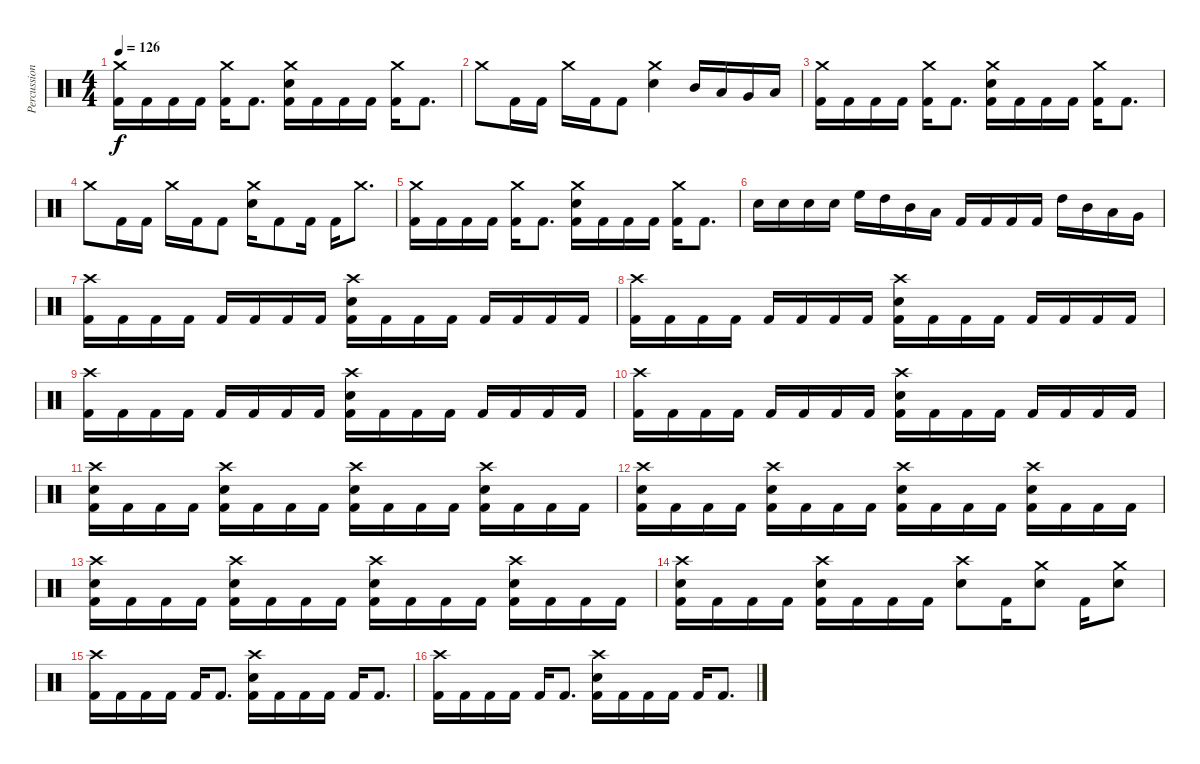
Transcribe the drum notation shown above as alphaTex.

\track ("Percussion" "Percussion") {instrument percussion}
\staff {score}
\articulation defaults
\ts (4 4)
\tempo 126
\clef neutral
\ks c
("Crash medium (hit)" "Kick (hit) 2").16{dy f} "Kick (hit) 2".16 "Kick (hit) 2".16 "Kick (hit) 2".16 ("Crash medium (hit)" "Kick (hit) 2").16 "Kick (hit) 2".8{d} ("Crash medium (hit)" "Electric Snare (hit)" "Kick (hit) 2").16 "Kick (hit) 2".16 "Kick (hit) 2".16 "Kick (hit) 2".16 ("Crash medium (hit)" "Kick (hit) 2").16 "Kick (hit) 2".8{d} |
"Crash medium (hit)".8 "Kick (hit) 2".16 "Kick (hit) 2".16 "Crash medium (hit)".16 "Kick (hit) 2".16 "Kick (hit) 2".8 ("Crash medium (hit)" "Electric Snare (hit)").4 "Mid Tom (hit)".16 "Low Tom (hit)".16 "Very Low Tom (hit)".16 "Low Floor Tom (hit)".16 |
("Crash medium (hit)" "Kick (hit) 2").16 "Kick (hit) 2".16 "Kick (hit) 2".16 "Kick (hit) 2".16 ("Crash medium (hit)" "Kick (hit) 2").16 "Kick (hit) 2".8{d} ("Crash medium (hit)" "Electric Snare (hit)" "Kick (hit) 2").16 "Kick (hit) 2".16 "Kick (hit) 2".16 "Kick (hit) 2".16 ("Crash medium (hit)" "Kick (hit) 2").16 "Kick (hit) 2".8{d} |
"Crash medium (hit)".8 "Kick (hit) 2".16 "Kick (hit) 2".16 "Crash medium (hit)".16 "Kick (hit) 2".16 "Kick (hit) 2".8 ("Crash medium (hit)" "Electric Snare (hit)").16 "Kick (hit) 2".8 "Kick (hit) 2".16 "Kick (hit) 2".16 "Crash medium (hit)".8{d} |
("Crash medium (hit)" "Kick (hit) 2").16 "Kick (hit) 2".16 "Kick (hit) 2".16 "Kick (hit) 2".16 ("Crash medium (hit)" "Kick (hit) 2").16 "Kick (hit) 2".8{d} ("Crash medium (hit)" "Electric Snare (hit)" "Kick (hit) 2").16 "Kick (hit) 2".16 "Kick (hit) 2".16 "Kick (hit) 2".16 ("Crash medium (hit)" "Kick (hit) 2").16 "Kick (hit) 2".8{d} |
"Electric Snare (hit)".16 "Electric Snare (hit)".16 "Electric Snare (hit)".16 "Electric Snare (hit)".16 "High Floor Tom (hit)".16 "High Tom (hit)".16 "Mid Tom (hit)".16 "Low Tom (hit)".16 "Kick (hit) 2".16 "Kick (hit) 2".16 "Kick (hit) 2".16 "Kick (hit) 2".16 "High Tom (hit)".16 "Mid Tom (hit)".16 "Low Tom (hit)".16 "Very Low Tom (hit)".16 |
("Crash high (hit)" "Kick (hit) 2").16 "Kick (hit) 2".16 "Kick (hit) 2".16 "Kick (hit) 2".16 "Kick (hit) 2".16 "Kick (hit) 2".16 "Kick (hit) 2".16 "Kick (hit) 2".16 ("Crash high (hit)" "Electric Snare (hit)" "Kick (hit) 2").16 "Kick (hit) 2".16 "Kick (hit) 2".16 "Kick (hit) 2".16 "Kick (hit) 2".16 "Kick (hit) 2".16 "Kick (hit) 2".16 "Kick (hit) 2".16 |
("Crash high (hit)" "Kick (hit) 2").16 "Kick (hit) 2".16 "Kick (hit) 2".16 "Kick (hit) 2".16 "Kick (hit) 2".16 "Kick (hit) 2".16 "Kick (hit) 2".16 "Kick (hit) 2".16 ("Crash high (hit)" "Electric Snare (hit)" "Kick (hit) 2").16 "Kick (hit) 2".16 "Kick (hit) 2".16 "Kick (hit) 2".16 "Kick (hit) 2".16 "Kick (hit) 2".16 "Kick (hit) 2".16 "Kick (hit) 2".16 |
("Crash high (hit)" "Kick (hit) 2").16 "Kick (hit) 2".16 "Kick (hit) 2".16 "Kick (hit) 2".16 "Kick (hit) 2".16 "Kick (hit) 2".16 "Kick (hit) 2".16 "Kick (hit) 2".16 ("Crash high (hit)" "Electric Snare (hit)" "Kick (hit) 2").16 "Kick (hit) 2".16 "Kick (hit) 2".16 "Kick (hit) 2".16 "Kick (hit) 2".16 "Kick (hit) 2".16 "Kick (hit) 2".16 "Kick (hit) 2".16 |
("Crash high (hit)" "Kick (hit) 2").16 "Kick (hit) 2".16 "Kick (hit) 2".16 "Kick (hit) 2".16 "Kick (hit) 2".16 "Kick (hit) 2".16 "Kick (hit) 2".16 "Kick (hit) 2".16 ("Crash high (hit)" "Electric Snare (hit)" "Kick (hit) 2").16 "Kick (hit) 2".16 "Kick (hit) 2".16 "Kick (hit) 2".16 "Kick (hit) 2".16 "Kick (hit) 2".16 "Kick (hit) 2".16 "Kick (hit) 2".16 |
("Crash high (hit)" "Electric Snare (hit)" "Kick (hit) 2").16 "Kick (hit) 2".16 "Kick (hit) 2".16 "Kick (hit) 2".16 ("Crash high (hit)" "Electric Snare (hit)" "Kick (hit) 2").16 "Kick (hit) 2".16 "Kick (hit) 2".16 "Kick (hit) 2".16 ("Crash high (hit)" "Electric Snare (hit)" "Kick (hit) 2").16 "Kick (hit) 2".16 "Kick (hit) 2".16 "Kick (hit) 2".16 ("Crash high (hit)" "Electric Snare (hit)" "Kick (hit) 2").16 "Kick (hit) 2".16 "Kick (hit) 2".16 "Kick (hit) 2".16 |
("Crash high (hit)" "Electric Snare (hit)" "Kick (hit) 2").16 "Kick (hit) 2".16 "Kick (hit) 2".16 "Kick (hit) 2".16 ("Crash high (hit)" "Electric Snare (hit)" "Kick (hit) 2").16 "Kick (hit) 2".16 "Kick (hit) 2".16 "Kick (hit) 2".16 ("Crash high (hit)" "Electric Snare (hit)" "Kick (hit) 2").16 "Kick (hit) 2".16 "Kick (hit) 2".16 "Kick (hit) 2".16 ("Crash high (hit)" "Electric Snare (hit)" "Kick (hit) 2").16 "Kick (hit) 2".16 "Kick (hit) 2".16 "Kick (hit) 2".16 |
("Crash high (hit)" "Electric Snare (hit)" "Kick (hit) 2").16 "Kick (hit) 2".16 "Kick (hit) 2".16 "Kick (hit) 2".16 ("Crash high (hit)" "Electric Snare (hit)" "Kick (hit) 2").16 "Kick (hit) 2".16 "Kick (hit) 2".16 "Kick (hit) 2".16 ("Crash high (hit)" "Electric Snare (hit)" "Kick (hit) 2").16 "Kick (hit) 2".16 "Kick (hit) 2".16 "Kick (hit) 2".16 ("Crash high (hit)" "Electric Snare (hit)" "Kick (hit) 2").16 "Kick (hit) 2".16 "Kick (hit) 2".16 "Kick (hit) 2".16 |
("Crash high (hit)" "Electric Snare (hit)" "Kick (hit) 2").16 "Kick (hit) 2".16 "Kick (hit) 2".16 "Kick (hit) 2".16 ("Crash high (hit)" "Electric Snare (hit)" "Kick (hit) 2").16 "Kick (hit) 2".16 "Kick (hit) 2".16 "Kick (hit) 2".16 ("Crash high (hit)" "Electric Snare (hit)").8 "Kick (hit) 2".16 ("Crash medium (hit)" "Electric Snare (hit)").8 "Kick (hit) 2".16 ("Crash medium (hit)" "Electric Snare (hit)").8 |
("Crash high (hit)" "Kick (hit) 2").16 "Kick (hit) 2".16 "Kick (hit) 2".16 "Kick (hit) 2".16 "Kick (hit) 2".16 "Kick (hit) 2".8{d} ("Crash high (hit)" "Electric Snare (hit)" "Kick (hit) 2").16 "Kick (hit) 2".16 "Kick (hit) 2".16 "Kick (hit) 2".16 "Kick (hit) 2".16 "Kick (hit) 2".8{d} |
("Crash high (hit)" "Kick (hit) 2").16 "Kick (hit) 2".16 "Kick (hit) 2".16 "Kick (hit) 2".16 "Kick (hit) 2".16 "Kick (hit) 2".8{d} ("Crash high (hit)" "Electric Snare (hit)" "Kick (hit) 2").16 "Kick (hit) 2".16 "Kick (hit) 2".16 "Kick (hit) 2".16 "Kick (hit) 2".16 "Kick (hit) 2".8{d}
